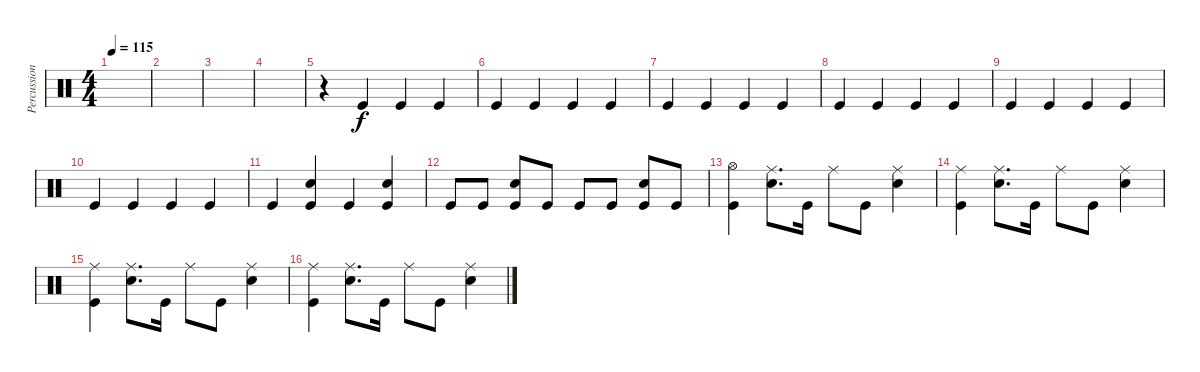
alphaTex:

\track ("Percussion 1" "Percussion") {instrument percussion}
\staff {score}
\articulation defaults
\ts (4 4)
\tempo 115
\clef neutral
\ks c
|
|
|
|
r.4 "Kick (hit)".4 "Kick (hit)".4 "Kick (hit)".4 |
"Kick (hit)".4 "Kick (hit)".4 "Kick (hit)".4 "Kick (hit)".4 |
"Kick (hit)".4 "Kick (hit)".4 "Kick (hit)".4 "Kick (hit)".4 |
"Kick (hit)".4 "Kick (hit)".4 "Kick (hit)".4 "Kick (hit)".4 |
"Kick (hit)".4 "Kick (hit)".4 "Kick (hit)".4 "Kick (hit)".4 |
"Kick (hit)".4 "Kick (hit)".4 "Kick (hit)".4 "Kick (hit)".4 |
"Kick (hit)".4 ("Snare (hit) 2" "Kick (hit)").4 "Kick (hit)".4 ("Snare (hit) 2" "Kick (hit)").4 |
"Kick (hit)".8 "Kick (hit)".8 ("Snare (hit) 2" "Kick (hit)").8 "Kick (hit)".8 "Kick (hit)".8 "Kick (hit)".8 ("Snare (hit) 2" "Kick (hit)").8 "Kick (hit)".8 |
("Hi-Hat (open)" "Kick (hit)").4 ("Ride (middle)" "Snare (hit) 2").8{d} "Kick (hit)".16 "Ride (middle)".8 "Kick (hit)".8 ("Ride (middle)" "Snare (hit) 2").4 |
("Ride (middle)" "Kick (hit)").4 ("Ride (middle)" "Snare (hit) 2").8{d} "Kick (hit)".16 "Ride (middle)".8 "Kick (hit)".8 ("Ride (middle)" "Snare (hit) 2").4 |
("Ride (middle)" "Kick (hit)").4 ("Ride (middle)" "Snare (hit) 2").8{d} "Kick (hit)".16 "Ride (middle)".8 "Kick (hit)".8 ("Ride (middle)" "Snare (hit) 2").4 |
("Ride (middle)" "Kick (hit)").4 ("Ride (middle)" "Snare (hit) 2").8{d} "Kick (hit)".16 "Ride (middle)".8 "Kick (hit)".8 ("Ride (middle)" "Snare (hit) 2").4
